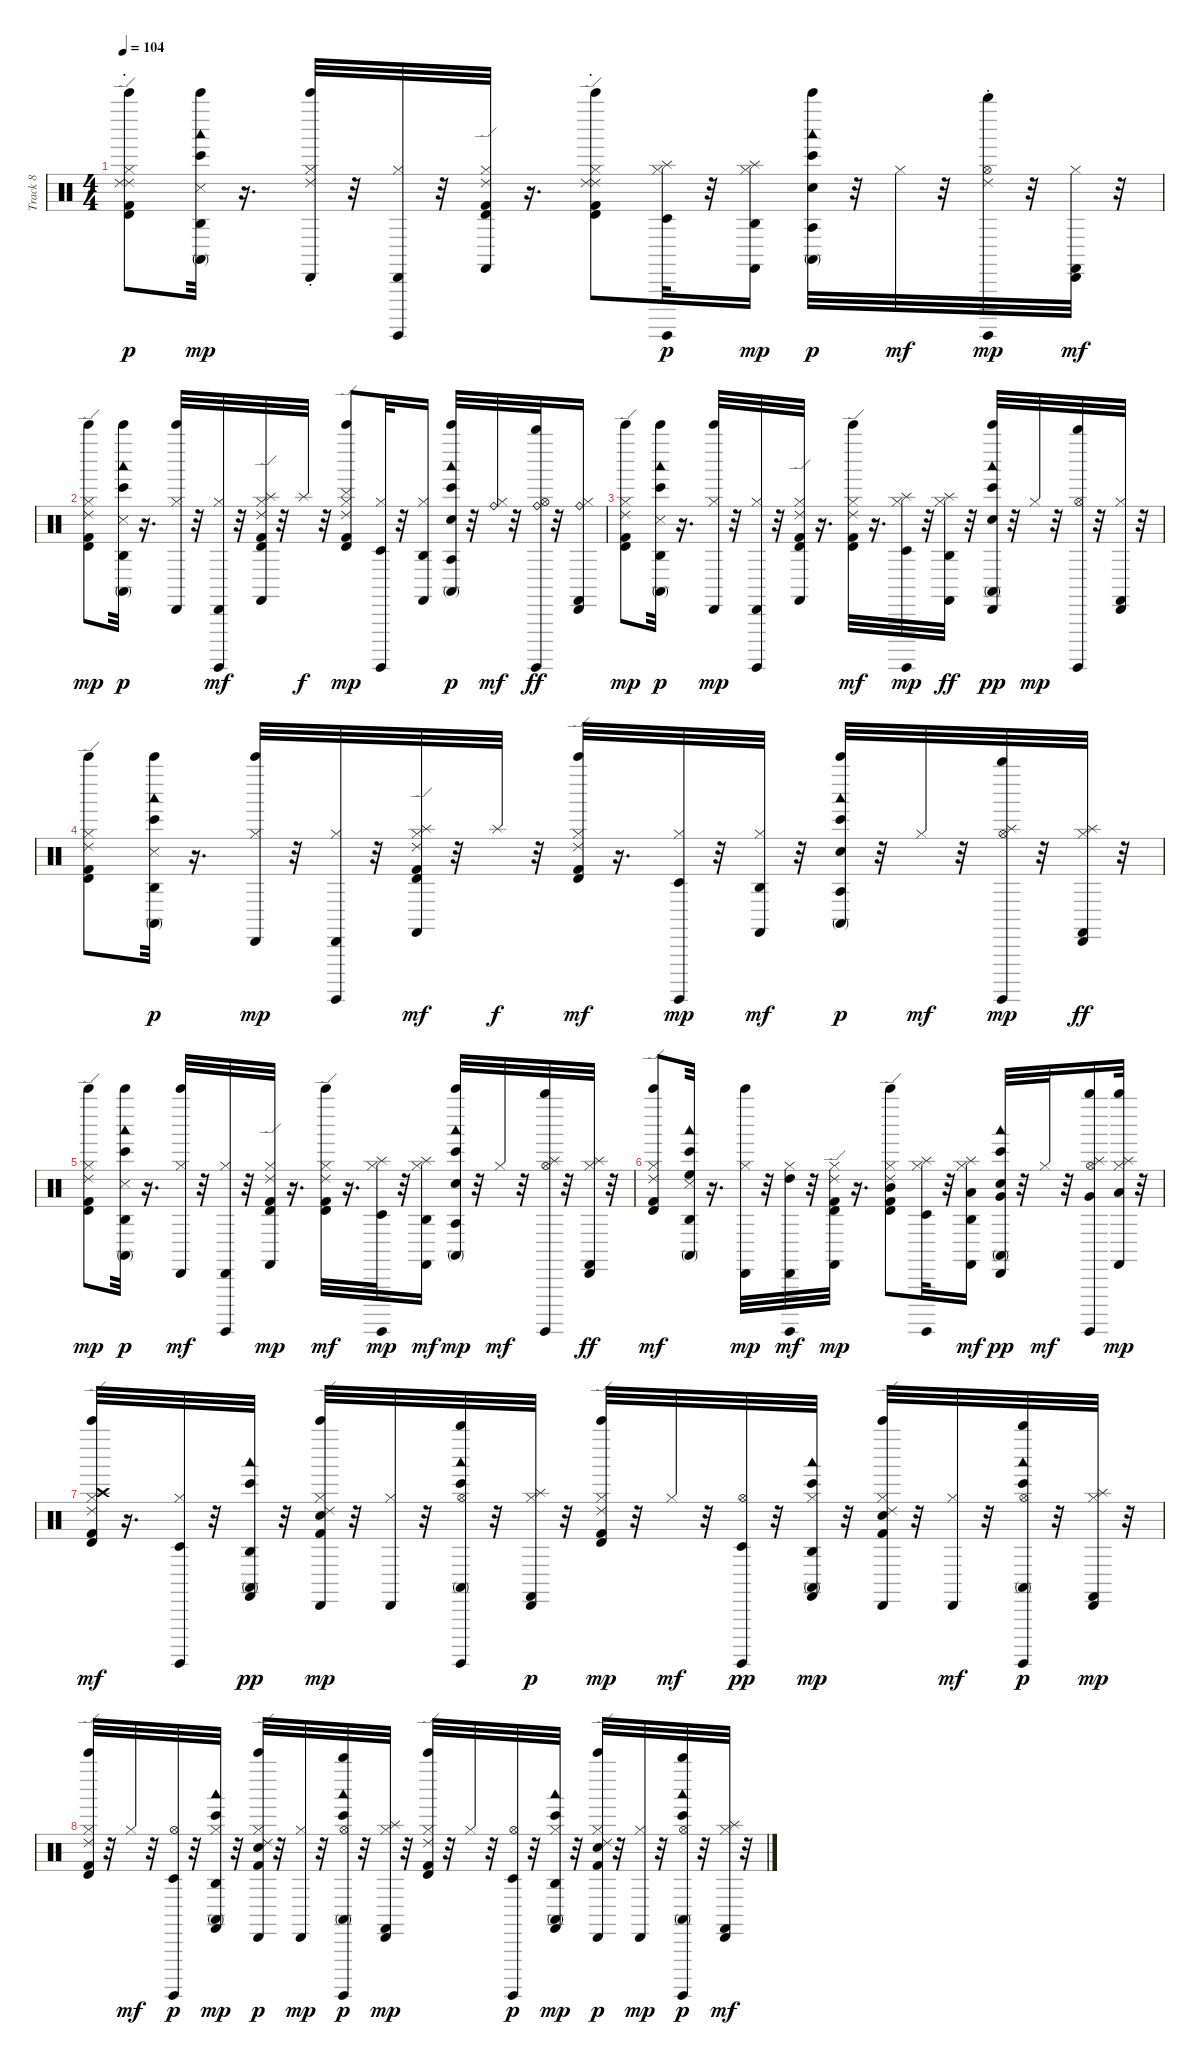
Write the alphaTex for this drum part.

\track ("Track 8" "Track 8") {instrument percussion}
\staff {score}
\articulation defaults
\ts (4 4)
\tempo 104
\clef neutral
\ks c
("Timbale high (hit)" "Ride (edge) 2" "Kick (hit) 2" "Bell Tree (hit)" "Hi-Hat (closed)" "Ride (choke) 2").8{dy p} ("Agogo high (hit)" "Bongo High (hit)" "Conga high (mute)" "Snare (side stick) 3" "Woodblock low (hit)" "Bell Tree (hit)").32{dy mp} r.16{d} ("Cabasa (hit)" "Bell Tree (hit)" "Hi-Hat (closed)" "Ride (choke) 2").32 r.32 ("Cabasa (hit)" "Surdo (hit)" "Hi-Hat (closed)").32 r.32 ("Timbale high (hit)" "Ride (edge) 2" "Kick (hit) 2" "Castanets (hit)" "Hi-Hat (closed)").32 r.16{d} ("Timbale high (hit)" "Ride (edge) 2" "Kick (hit) 2" "Bell Tree (hit)" "Hi-Hat (closed)" "Ride (choke) 2").8 ("Timbale low (hit)" "Surdo (hit)" "Hi-Hat (closed)" "Splash (hit)").32{dy p} r.32 ("Agogo high (hit)" "Castanets (hit)" "Hi-Hat (closed)" "Splash (hit)").16{dy mp} ("Agogo tow (hit)" "Bongo High (hit)" "Conga high (mute)" "Electric Snare (hit)" "Woodblock low (hit)" "Bell Tree (hit)").32{dy p} r.32 "Hi-Hat (closed)".32{dy mf} r.32 ("Whistle high (hit)" "Surdo (hit)" "Hi-Hat (open)" "Ride (choke) 2").32{dy mp} r.32 ("Cabasa (hit)" "Castanets (hit)" "Hi-Hat (closed)").32{dy mf} r.32 |
("Timbale high (hit)" "Ride (edge) 2" "Kick (hit) 2" "Bell Tree (hit)" "Hi-Hat (closed)").8{dy mp} ("Agogo high (hit)" "Bongo High (hit)" "Conga high (mute)" "Snare (side stick) 3" "Woodblock low (hit)" "Bell Tree (hit)").32{dy p} r.16{d} ("Cabasa (hit)" "Bell Tree (hit)" "Hi-Hat (closed)").32 r.32 ("Cabasa (hit)" "Surdo (hit)" "Hi-Hat (closed)").32{dy mf} r.32 ("Timbale high (hit)" "Ride (edge) 2" "Kick (hit) 2" "Castanets (hit)" "Splash (hit)" "Hi-Hat (closed)").32 r.32 "Splash (hit)".32{dy f} r.32 ("Timbale high (hit)" "Ride (edge) 2" "Kick (hit) 2" "Bell Tree (hit)" "Hi-Hat (closed)" "Cymbal (hit)").8{dy mp} ("Timbale low (hit)" "Surdo (hit)" "Hi-Hat (closed)").32 r.32 ("Agogo high (hit)" "Castanets (hit)" "Hi-Hat (closed)").16 ("Agogo tow (hit)" "Bongo High (hit)" "Conga high (mute)" "Electric Snare (hit)" "Woodblock low (hit)" "Bell Tree (hit)").32{dy p} r.32 ("Hi-Hat (closed)" "Ride (bell)").32{dy mf} r.32 ("Whistle high (hit)" "Surdo (hit)" "Hi-Hat (open)" "Ride (bell)").32{dy ff} r.32 ("Cabasa (hit)" "Castanets (hit)" "Hi-Hat (closed)" "Ride (bell)").16 |
("Timbale high (hit)" "Ride (edge) 2" "Kick (hit) 2" "Bell Tree (hit)" "Hi-Hat (closed)").8{dy mp} ("Agogo high (hit)" "Bongo High (hit)" "Conga high (mute)" "Snare (side stick) 3" "Woodblock low (hit)" "Bell Tree (hit)").32{dy p} r.16{d} ("Cabasa (hit)" "Bell Tree (hit)" "Hi-Hat (closed)").32{dy mp} r.32 ("Cabasa (hit)" "Surdo (hit)" "Hi-Hat (closed)").32 r.32 ("Timbale high (hit)" "Ride (edge) 2" "Kick (hit) 2" "Castanets (hit)" "Hi-Hat (closed)").32 r.16{d} ("Timbale high (hit)" "Ride (edge) 2" "Kick (hit) 2" "Bell Tree (hit)" "Hi-Hat (closed)").32{dy mf} r.16{d} ("Timbale low (hit)" "Surdo (hit)" "Hi-Hat (closed)" "Splash (hit)").32{dy mp} r.32 ("Agogo high (hit)" "Castanets (hit)" "Hi-Hat (closed)" "Splash (hit)").32{dy ff} r.32 ("Cabasa (hit)" "Bongo High (hit)" "Conga high (mute)" "Electric Snare (hit)" "Woodblock low (hit)" "Bell Tree (hit)").32{dy pp} r.32 "Hi-Hat (closed)".32{dy mp} r.32 ("Whistle high (hit)" "Surdo (hit)" "Hi-Hat (open)").32 r.32 ("Cabasa (hit)" "Castanets (hit)" "Hi-Hat (closed)").32 r.32 |
("Timbale high (hit)" "Ride (edge) 2" "Kick (hit) 2" "Bell Tree (hit)" "Hi-Hat (closed)").8 ("Agogo high (hit)" "Bongo High (hit)" "Conga high (mute)" "Snare (side stick) 3" "Woodblock low (hit)" "Bell Tree (hit)").32{dy p} r.16{d} ("Cabasa (hit)" "Bell Tree (hit)" "Hi-Hat (closed)").32{dy mp} r.32 ("Cabasa (hit)" "Surdo (hit)" "Hi-Hat (closed)").32 r.32 ("Timbale high (hit)" "Ride (edge) 2" "Kick (hit) 2" "Castanets (hit)" "Splash (hit)" "Hi-Hat (closed)").32{dy mf} r.32 "Splash (hit)".32{dy f} r.32 ("Timbale high (hit)" "Ride (edge) 2" "Kick (hit) 2" "Bell Tree (hit)" "Hi-Hat (closed)").32{dy mf} r.16{d} ("Timbale low (hit)" "Surdo (hit)" "Hi-Hat (closed)").32{dy mp} r.32 ("Agogo high (hit)" "Castanets (hit)" "Hi-Hat (closed)").32{dy mf} r.32 ("Agogo tow (hit)" "Bongo High (hit)" "Conga high (mute)" "Electric Snare (hit)" "Woodblock low (hit)" "Bell Tree (hit)").32{dy p} r.32 "Hi-Hat (closed)".32{dy mf} r.32 ("Whistle high (hit)" "Surdo (hit)" "Hi-Hat (open)" "Splash (hit)").32{dy mp} r.32 ("Cabasa (hit)" "Castanets (hit)" "Hi-Hat (closed)" "Splash (hit)").32{dy ff} r.32 |
("Timbale high (hit)" "Ride (edge) 2" "Kick (hit) 2" "Bell Tree (hit)" "Hi-Hat (closed)").8{dy mp} ("Agogo high (hit)" "Conga high (mute)" "Bongo High (hit)" "Snare (side stick) 3" "Woodblock low (hit)" "Bell Tree (hit)").32{dy p} r.16{d} ("Cabasa (hit)" "Bell Tree (hit)" "Hi-Hat (closed)").32{dy mf} r.32 ("Cabasa (hit)" "Surdo (hit)" "Hi-Hat (closed)").32 r.32 ("Timbale high (hit)" "Ride (edge) 2" "Kick (hit) 2" "Castanets (hit)" "Hi-Hat (closed)").32{dy mp} r.16{d} ("Timbale high (hit)" "Ride (edge) 2" "Kick (hit) 2" "Bell Tree (hit)" "Hi-Hat (closed)").32{dy mf} r.16{d} ("Timbale low (hit)" "Surdo (hit)" "Hi-Hat (closed)" "Splash (hit)").32{dy mp} r.32 ("Agogo high (hit)" "Castanets (hit)" "Hi-Hat (closed)" "Splash (hit)").16{dy mf} ("Agogo tow (hit)" "Bongo High (hit)" "Conga high (mute)" "Electric Snare (hit)" "Woodblock low (hit)" "Bell Tree (hit)").32{dy mp} r.32 "Hi-Hat (closed)".32{dy mf} r.32 ("Whistle high (hit)" "Surdo (hit)" "Hi-Hat (open)" "Splash (hit)").32 r.32 ("Cabasa (hit)" "Castanets (hit)" "Hi-Hat (closed)" "Splash (hit)").32{dy ff} r.32 |
("Timbale high (hit)" "Ride (edge) 2" "Kick (hit) 2" "Bell Tree (hit)" "Hi-Hat (closed)").8{dy mf} ("Agogo high (hit)" "Bongo High (hit)" "Conga high (mute)" "Snare (side stick) 3" "Woodblock low (hit)" "High Floor Tom (hit)").32 r.16{d} ("Cabasa (hit)" "Bell Tree (hit)" "Hi-Hat (closed)").32{dy mp} r.32 ("Cabasa (hit)" "High Tom (hit)" "Surdo (hit)" "Hi-Hat (closed)").32{dy mf} r.32 ("Timbale high (hit)" "Ride (edge) 2" "Kick (hit) 2" "Castanets (hit)" "Hi-Hat (closed)").32{dy mp} r.16{d} ("Timbale high (hit)" "Ride (edge) 2" "Kick (hit) 2" "Mid Tom (hit)" "Bell Tree (hit)" "Hi-Hat (closed)").8 ("Timbale low (hit)" "Surdo (hit)" "Hi-Hat (closed)" "Splash (hit)").32 r.32 ("Agogo high (hit)" "Low Tom (hit)" "Castanets (hit)" "Hi-Hat (closed)" "Splash (hit)").16{dy mf} ("Cabasa (hit)" "Bongo High (hit)" "Conga high (mute)" "Electric Snare (hit)" "Woodblock low (hit)" "Very Low Tom (hit)").32{dy pp} r.32 "Hi-Hat (closed)".32{dy mf} r.32 ("Whistle high (hit)" "Very Low Tom (hit)" "Surdo (hit)" "Hi-Hat (open)" "Splash (hit)").16 ("Whistle high (hit)" "Low Floor Tom (hit)" "Castanets (hit)" "Hi-Hat (closed)" "Splash (hit)").32{dy mp} r.32 |
("Timbale high (hit)" "Ride (edge) 2" "Kick (hit) 2" "Crash high (hit)" "Bell Tree (hit)" "Hi-Hat (closed)").32{dy mf} r.16{d} ("Timbale low (hit)" "Surdo (hit)" "Hi-Hat (closed)").32 r.32 ("Agogo high (hit)" "Bongo High (hit)" "Conga high (mute)" "Woodblock low (hit)" "Castanets (hit)").32{dy pp} r.32 ("Cabasa (hit)" "Ride (edge) 2" "Kick (hit) 2" "Electric Snare (hit)" "Bell Tree (hit)" "Hi-Hat (closed)").32{dy mp} r.32 ("Cabasa (hit)" "Hi-Hat (closed)").32 r.32 ("Whistle high (hit)" "Bongo High (hit)" "Conga high (mute)" "Woodblock low (hit)" "Surdo (hit)" "Hi-Hat (open)").32 r.32 ("Cabasa (hit)" "Castanets (hit)" "Hi-Hat (closed)" "Splash (hit)").32{dy p} r.32 ("Timbale high (hit)" "Ride (edge) 2" "Kick (hit) 2" "Bell Tree (hit)" "Hi-Hat (closed)").32{dy mp} r.32 "Hi-Hat (closed)".32{dy mf} r.32 ("Timbale low (hit)" "Surdo (hit)" "Hi-Hat (open)").32{dy pp} r.32 ("Agogo high (hit)" "Bongo High (hit)" "Conga high (mute)" "Woodblock low (hit)" "Castanets (hit)" "Hi-Hat (closed)").32{dy mp} r.32 ("Cabasa (hit)" "Ride (edge) 2" "Kick (hit) 2" "Electric Snare (hit)" "Bell Tree (hit)" "Hi-Hat (closed)").32 r.32 ("Cabasa (hit)" "Hi-Hat (closed)").32{dy mf} r.32 ("Whistle high (hit)" "Conga high (mute)" "Bongo High (hit)" "Woodblock low (hit)" "Surdo (hit)" "Hi-Hat (open)").32{dy p} r.32 ("Cabasa (hit)" "Castanets (hit)" "Hi-Hat (closed)" "Splash (hit)").32{dy mp} r.32 |
("Timbale high (hit)" "Ride (edge) 2" "Kick (hit) 2" "Bell Tree (hit)" "Hi-Hat (closed)").32 r.32 "Hi-Hat (closed)".32{dy mf} r.32 ("Timbale low (hit)" "Surdo (hit)" "Hi-Hat (open)").32{dy p} r.32 ("Agogo high (hit)" "Bongo High (hit)" "Conga high (mute)" "Woodblock low (hit)" "Castanets (hit)" "Hi-Hat (closed)").32{dy mp} r.32 ("Cabasa (hit)" "Ride (edge) 2" "Kick (hit) 2" "Electric Snare (hit)" "Bell Tree (hit)" "Hi-Hat (closed)").32{dy p} r.32 ("Cabasa (hit)" "Hi-Hat (closed)").32{dy mp} r.32 ("Whistle high (hit)" "Bongo High (hit)" "Conga high (mute)" "Woodblock low (hit)" "Surdo (hit)" "Hi-Hat (open)").32{dy p} r.32 ("Cabasa (hit)" "Castanets (hit)" "Hi-Hat (closed)" "Splash (hit)").32{dy mp} r.32 ("Timbale high (hit)" "Ride (edge) 2" "Kick (hit) 2" "Bell Tree (hit)" "Hi-Hat (closed)").32 r.32 "Hi-Hat (closed)".32 r.32 ("Timbale low (hit)" "Surdo (hit)" "Hi-Hat (open)").32{dy p} r.32 ("Agogo high (hit)" "Bongo High (hit)" "Conga high (mute)" "Woodblock low (hit)" "Castanets (hit)" "Hi-Hat (closed)").32{dy mp} r.32 ("Cabasa (hit)" "Ride (edge) 2" "Kick (hit) 2" "Electric Snare (hit)" "Bell Tree (hit)" "Hi-Hat (closed)").32{dy p} r.32 ("Cabasa (hit)" "Hi-Hat (closed)").32{dy mp} r.32 ("Whistle high (hit)" "Bongo High (hit)" "Conga high (mute)" "Woodblock low (hit)" "Surdo (hit)" "Hi-Hat (open)").32{dy p} r.32 ("Cabasa (hit)" "Castanets (hit)" "Hi-Hat (closed)" "Splash (hit)").32{dy mf} r.32
